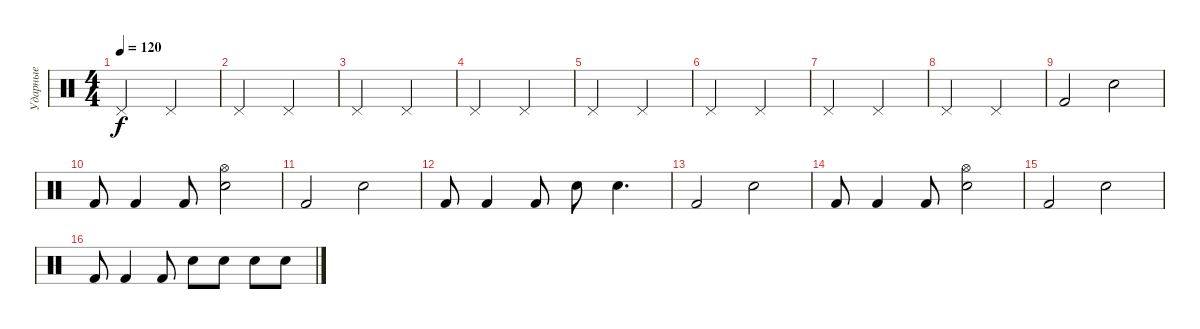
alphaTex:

\track ("Ударные" "Ударные") {instrument percussion}
\staff {score}
\articulation defaults
\ts (4 4)
\tempo 120
\clef neutral
\ks c "Pedal Hi-Hat (hit)".2{dy f} "Pedal Hi-Hat (hit)".2
|
"Pedal Hi-Hat (hit)".2 "Pedal Hi-Hat (hit)".2 |
"Pedal Hi-Hat (hit)".2 "Pedal Hi-Hat (hit)".2 |
"Pedal Hi-Hat (hit)".2 "Pedal Hi-Hat (hit)".2 |
"Pedal Hi-Hat (hit)".2 "Pedal Hi-Hat (hit)".2 |
"Pedal Hi-Hat (hit)".2 "Pedal Hi-Hat (hit)".2 |
"Pedal Hi-Hat (hit)".2 "Pedal Hi-Hat (hit)".2 |
"Pedal Hi-Hat (hit)".2 "Pedal Hi-Hat (hit)".2 |
"Kick (hit) 2".2 "Electric Snare (hit)".2 |
"Kick (hit) 2".8 "Kick (hit) 2".4 "Kick (hit) 2".8 ("Hi-Hat (open)" "Electric Snare (hit)").2 |
"Kick (hit) 2".2 "Electric Snare (hit)".2 |
"Kick (hit) 2".8 "Kick (hit) 2".4 "Kick (hit) 2".8 "Electric Snare (hit)".8 "Electric Snare (hit)".4{d} |
"Kick (hit) 2".2 "Electric Snare (hit)".2 |
"Kick (hit) 2".8 "Kick (hit) 2".4 "Kick (hit) 2".8 ("Hi-Hat (open)" "Electric Snare (hit)").2 |
"Kick (hit) 2".2 "Electric Snare (hit)".2 |
"Kick (hit) 2".8 "Kick (hit) 2".4 "Kick (hit) 2".8 "Electric Snare (hit)".8 "Electric Snare (hit)".8 "Electric Snare (hit)".8 "Electric Snare (hit)".8
